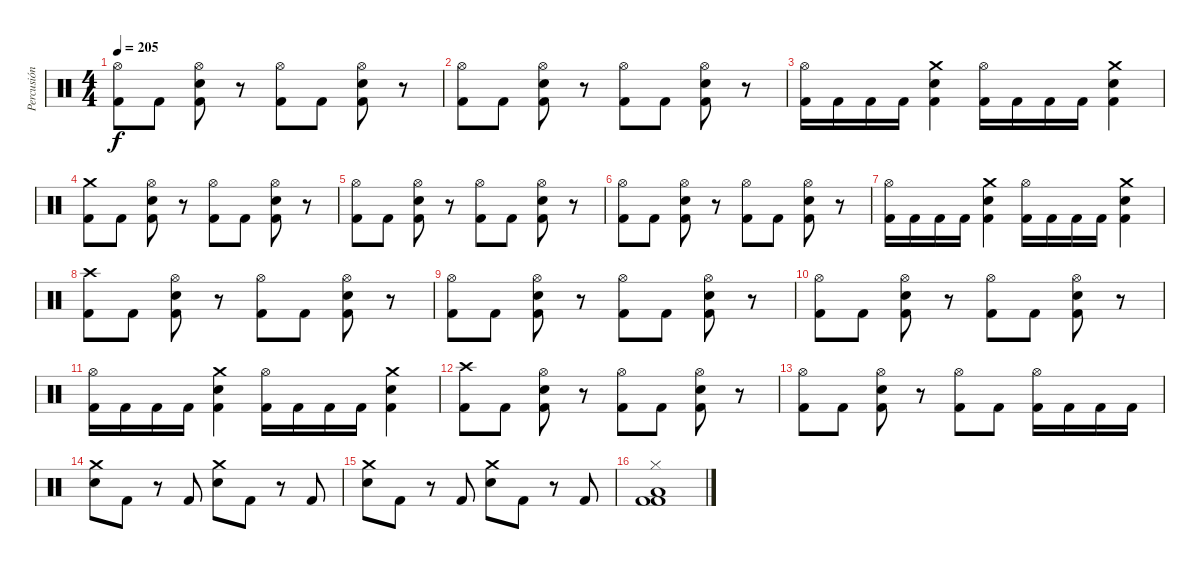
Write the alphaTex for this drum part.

\track ("Percusión" "Percusión") {instrument percussion}
\staff {score}
\articulation defaults
\ts (4 4)
\tempo 205
\clef neutral
\ks c
("Hi-Hat (open)" "Kick (hit) 2").8{dy f} "Kick (hit) 2".8 ("Hi-Hat (open)" "Snare (hit) 2" "Kick (hit) 2").8 r.8 ("Hi-Hat (open)" "Kick (hit) 2").8 "Kick (hit) 2".8 ("Hi-Hat (open)" "Snare (hit) 2" "Kick (hit) 2").8 r.8 |
("Hi-Hat (open)" "Kick (hit) 2").8 "Kick (hit) 2".8 ("Hi-Hat (open)" "Snare (hit) 2" "Kick (hit) 2").8 r.8 ("Hi-Hat (open)" "Kick (hit) 2").8 "Kick (hit) 2".8 ("Hi-Hat (open)" "Snare (hit) 2" "Kick (hit) 2").8 r.8 |
("Hi-Hat (open)" "Kick (hit) 2").16 "Kick (hit) 2".16 "Kick (hit) 2".16 "Kick (hit) 2".16 ("Crash medium (hit)" "Snare (hit) 2" "Kick (hit) 2").4 ("Hi-Hat (open)" "Kick (hit) 2").16 "Kick (hit) 2".16 "Kick (hit) 2".16 "Kick (hit) 2".16 ("Crash medium (hit)" "Snare (hit) 2" "Kick (hit) 2").4 |
("Crash medium (hit)" "Kick (hit) 2").8 "Kick (hit) 2".8 ("Hi-Hat (open)" "Snare (hit) 2" "Kick (hit) 2").8 r.8 ("Hi-Hat (open)" "Kick (hit) 2").8 "Kick (hit) 2".8 ("Hi-Hat (open)" "Snare (hit) 2" "Kick (hit) 2").8 r.8 |
("Hi-Hat (open)" "Kick (hit) 2").8 "Kick (hit) 2".8 ("Hi-Hat (open)" "Snare (hit) 2" "Kick (hit) 2").8 r.8 ("Hi-Hat (open)" "Kick (hit) 2").8 "Kick (hit) 2".8 ("Hi-Hat (open)" "Snare (hit) 2" "Kick (hit) 2").8 r.8 |
("Hi-Hat (open)" "Kick (hit) 2").8 "Kick (hit) 2".8 ("Hi-Hat (open)" "Snare (hit) 2" "Kick (hit) 2").8 r.8 ("Hi-Hat (open)" "Kick (hit) 2").8 "Kick (hit) 2".8 ("Hi-Hat (open)" "Snare (hit) 2" "Kick (hit) 2").8 r.8 |
("Hi-Hat (open)" "Kick (hit) 2").16 "Kick (hit) 2".16 "Kick (hit) 2".16 "Kick (hit) 2".16 ("Crash medium (hit)" "Snare (hit) 2" "Kick (hit) 2").4 ("Hi-Hat (open)" "Kick (hit) 2").16 "Kick (hit) 2".16 "Kick (hit) 2".16 "Kick (hit) 2".16 ("Crash medium (hit)" "Snare (hit) 2" "Kick (hit) 2").4 |
("Crash high (hit)" "Kick (hit) 2").8 "Kick (hit) 2".8 ("Hi-Hat (open)" "Snare (hit) 2" "Kick (hit) 2").8 r.8 ("Hi-Hat (open)" "Kick (hit) 2").8 "Kick (hit) 2".8 ("Hi-Hat (open)" "Snare (hit) 2" "Kick (hit) 2").8 r.8 |
("Hi-Hat (open)" "Kick (hit) 2").8 "Kick (hit) 2".8 ("Hi-Hat (open)" "Snare (hit) 2" "Kick (hit) 2").8 r.8 ("Hi-Hat (open)" "Kick (hit) 2").8 "Kick (hit) 2".8 ("Hi-Hat (open)" "Snare (hit) 2" "Kick (hit) 2").8 r.8 |
("Hi-Hat (open)" "Kick (hit) 2").8 "Kick (hit) 2".8 ("Hi-Hat (open)" "Snare (hit) 2" "Kick (hit) 2").8 r.8 ("Hi-Hat (open)" "Kick (hit) 2").8 "Kick (hit) 2".8 ("Hi-Hat (open)" "Snare (hit) 2" "Kick (hit) 2").8 r.8 |
("Hi-Hat (open)" "Kick (hit) 2").16 "Kick (hit) 2".16 "Kick (hit) 2".16 "Kick (hit) 2".16 ("Crash medium (hit)" "Snare (hit) 2" "Kick (hit) 2").4 ("Hi-Hat (open)" "Kick (hit) 2").16 "Kick (hit) 2".16 "Kick (hit) 2".16 "Kick (hit) 2".16 ("Crash medium (hit)" "Snare (hit) 2" "Kick (hit) 2").4 |
("Crash high (hit)" "Kick (hit) 2").8 "Kick (hit) 2".8 ("Hi-Hat (open)" "Snare (hit) 2" "Kick (hit) 2").8 r.8 ("Hi-Hat (open)" "Kick (hit) 2").8 "Kick (hit) 2".8 ("Hi-Hat (open)" "Snare (hit) 2" "Kick (hit) 2").8 r.8 |
("Hi-Hat (open)" "Kick (hit) 2").8 "Kick (hit) 2".8 ("Hi-Hat (open)" "Snare (hit) 2" "Kick (hit) 2").8 r.8 ("Hi-Hat (open)" "Kick (hit) 2").8 "Kick (hit) 2".8 ("Hi-Hat (open)" "Kick (hit) 2").16 "Kick (hit) 2".16 "Kick (hit) 2".16 "Kick (hit) 2".16 |
("Crash medium (hit)" "Snare (hit) 2").8 "Kick (hit) 2".8 r.8 "Kick (hit) 2".8 ("Crash medium (hit)" "Snare (hit) 2").8 "Kick (hit) 2".8 r.8 "Kick (hit) 2".8 |
("Crash medium (hit)" "Snare (hit) 2").8 "Kick (hit) 2".8 r.8 "Kick (hit) 2".8 ("Crash medium (hit)" "Snare (hit) 2").8 "Kick (hit) 2".8 r.8 "Kick (hit) 2".8 |
("Low Tom (hit)" "Kick (hit) 2" "Kick (hit) 2" "Hi-Hat (closed)").1
